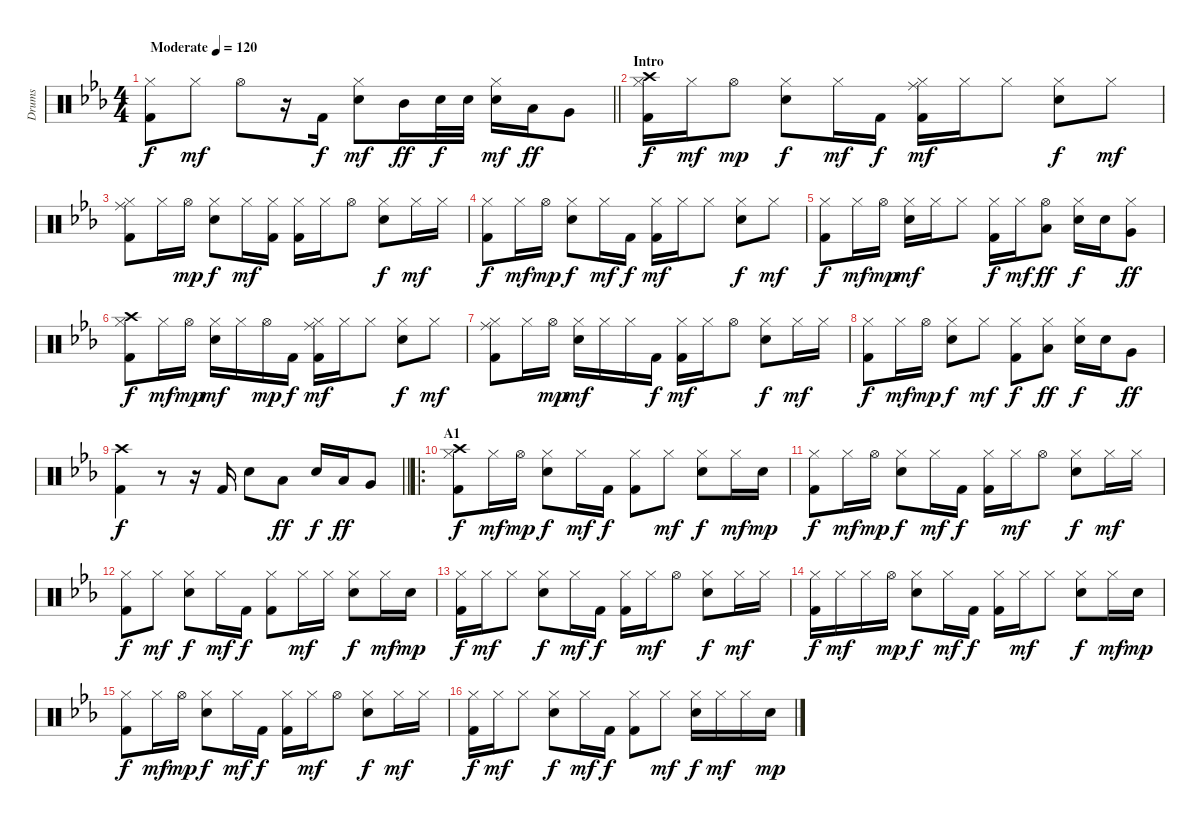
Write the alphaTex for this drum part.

\track ("Drums" "Drums") {instrument percussion}
\staff {score}
\articulation defaults
\ts (4 4)
\tempo (120 "Moderate")
\clef neutral
\barLineRight lightlight
\ks eb
("Hi-Hat (closed)" "Kick (hit) 2").8{dy f} "Hi-Hat (closed)".8{dy mf} "Hi-Hat (open)".8 r.16 "Kick (hit) 2".16{dy f} ("Hi-Hat (closed)" "Snare (hit) 2").8{dy mf} "Mid Tom (hit)".16{dy ff} "Snare (hit) 2".32{dy f} "Snare (hit) 2".32 ("Hi-Hat (closed)" "Snare (hit) 2").16{dy mf} "Low Tom (hit)".16{dy ff} "Very Low Tom (hit)".8 |
\section ("" "Intro")
("Hi-Hat (closed)" "Crash high (hit)" "Kick (hit) 2").16{dy f} "Hi-Hat (closed)".16{dy mf} "Hi-Hat (open)".8{dy mp} ("Hi-Hat (closed)" "Snare (hit) 2").8{dy f} "Hi-Hat (closed)".16{dy mf} "Kick (hit) 2".16{dy f} ("Hi-Hat (closed)" "Kick (hit) 2" "Ride (middle)").16{dy mf} "Hi-Hat (closed)".16 "Hi-Hat (closed)".8 ("Hi-Hat (closed)" "Snare (hit) 2").8{dy f} "Hi-Hat (closed)".8{dy mf} |
("Hi-Hat (closed)" "Kick (hit) 2" "Ride (middle)").8 "Hi-Hat (closed)".16 "Hi-Hat (open)".16{dy mp} ("Hi-Hat (closed)" "Snare (hit) 2").8{dy f} "Hi-Hat (closed)".16{dy mf} ("Hi-Hat (closed)" "Kick (hit) 2").16 ("Hi-Hat (closed)" "Kick (hit) 2").16 "Hi-Hat (closed)".16 "Hi-Hat (open)".8 ("Hi-Hat (closed)" "Snare (hit) 2").8{dy f} "Hi-Hat (closed)".16{dy mf} "Hi-Hat (closed)".16 |
("Hi-Hat (closed)" "Kick (hit) 2").8{dy f} "Hi-Hat (closed)".16{dy mf} "Hi-Hat (open)".16{dy mp} ("Hi-Hat (closed)" "Snare (hit) 2").8{dy f} "Hi-Hat (closed)".16{dy mf} "Kick (hit) 2".16{dy f} ("Hi-Hat (closed)" "Kick (hit) 2").16{dy mf} "Hi-Hat (closed)".16 "Hi-Hat (closed)".8 ("Hi-Hat (closed)" "Snare (hit) 2").8{dy f} "Hi-Hat (closed)".8{dy mf} |
("Hi-Hat (closed)" "Kick (hit) 2").8{dy f} "Hi-Hat (closed)".16{dy mf} "Hi-Hat (open)".16{dy mp} ("Hi-Hat (closed)" "Snare (hit) 2").16{dy mf} "Hi-Hat (closed)".16 "Hi-Hat (closed)".8 ("Hi-Hat (closed)" "Kick (hit) 2").16{dy f} "Hi-Hat (closed)".16{dy mf} ("Hi-Hat (open)" "Low Tom (hit)").8{dy ff} ("Hi-Hat (closed)" "Snare (hit) 2").16{dy f} "Snare (hit) 2".16 ("Hi-Hat (closed)" "Very Low Tom (hit)").8{dy ff} |
("Hi-Hat (closed)" "Crash high (hit)" "Kick (hit) 2").8{dy f} "Hi-Hat (closed)".16{dy mf} "Hi-Hat (open)".16{dy mp} ("Hi-Hat (closed)" "Snare (hit) 2").16{dy mf} "Hi-Hat (closed)".16 "Hi-Hat (open)".16{dy mp} "Kick (hit) 2".16{dy f} ("Hi-Hat (closed)" "Kick (hit) 2" "Ride (middle)").16{dy mf} "Hi-Hat (closed)".16 "Hi-Hat (closed)".8 ("Hi-Hat (closed)" "Snare (hit) 2").8{dy f} "Hi-Hat (closed)".8{dy mf} |
("Hi-Hat (closed)" "Kick (hit) 2" "Ride (middle)").8 "Hi-Hat (closed)".16 "Hi-Hat (open)".16{dy mp} ("Hi-Hat (closed)" "Snare (hit) 2").16{dy mf} "Hi-Hat (closed)".16 "Hi-Hat (closed)".16 "Kick (hit) 2".16{dy f} ("Hi-Hat (closed)" "Kick (hit) 2").16{dy mf} "Hi-Hat (closed)".16 "Hi-Hat (open)".8 ("Hi-Hat (closed)" "Snare (hit) 2").8{dy f} "Hi-Hat (closed)".16{dy mf} "Hi-Hat (closed)".16 |
("Hi-Hat (closed)" "Kick (hit) 2").8{dy f} "Hi-Hat (closed)".16{dy mf} "Hi-Hat (open)".16{dy mp} ("Hi-Hat (closed)" "Snare (hit) 2").8{dy f} "Hi-Hat (closed)".8{dy mf} ("Hi-Hat (closed)" "Kick (hit) 2").8{dy f} ("Hi-Hat (closed)" "Low Tom (hit)").8{dy ff} ("Hi-Hat (closed)" "Snare (hit) 2").16{dy f} "Snare (hit) 2".16 "Very Low Tom (hit)".8{dy ff} |
\barLineRight lightlight
("Crash high (hit)" "Kick (hit) 2").4{dy f} r.8 r.16 "Kick (hit) 2".16 "Snare (hit) 2".8 "Low Tom (hit)".8{dy ff} "Snare (hit) 2".16{dy f} "Low Tom (hit)".16{dy ff} "Very Low Tom (hit)".8 |
\ro
\section ("" "A1")
("Hi-Hat (closed)" "Crash high (hit)" "Kick (hit) 2").8{dy f} "Hi-Hat (closed)".16{dy mf} "Hi-Hat (open)".16{dy mp} ("Hi-Hat (closed)" "Snare (hit) 2").8{dy f} "Hi-Hat (closed)".16{dy mf} "Kick (hit) 2".16{dy f} ("Hi-Hat (closed)" "Kick (hit) 2").8 "Hi-Hat (closed)".8{dy mf} ("Hi-Hat (closed)" "Snare (hit) 2").8{dy f} "Hi-Hat (closed)".16{dy mf} "Snare (hit) 2".16{dy mp} |
("Hi-Hat (closed)" "Kick (hit) 2").8{dy f} "Hi-Hat (closed)".16{dy mf} "Hi-Hat (open)".16{dy mp} ("Hi-Hat (closed)" "Snare (hit) 2").8{dy f} "Hi-Hat (closed)".16{dy mf} "Kick (hit) 2".16{dy f} ("Hi-Hat (closed)" "Kick (hit) 2").16 "Hi-Hat (closed)".16{dy mf} "Hi-Hat (open)".8 ("Hi-Hat (closed)" "Snare (hit) 2").8{dy f} "Hi-Hat (closed)".16{dy mf} "Hi-Hat (closed)".16 |
("Hi-Hat (closed)" "Kick (hit) 2").8{dy f} "Hi-Hat (closed)".8{dy mf} ("Hi-Hat (closed)" "Snare (hit) 2").8{dy f} "Hi-Hat (closed)".16{dy mf} "Kick (hit) 2".16{dy f} ("Hi-Hat (closed)" "Kick (hit) 2").8 "Hi-Hat (closed)".16{dy mf} "Hi-Hat (closed)".16 ("Hi-Hat (closed)" "Snare (hit) 2").8{dy f} "Hi-Hat (closed)".16{dy mf} "Snare (hit) 2".16{dy mp} |
("Hi-Hat (closed)" "Kick (hit) 2").16{dy f} "Hi-Hat (closed)".16{dy mf} "Hi-Hat (closed)".8 ("Hi-Hat (closed)" "Snare (hit) 2").8{dy f} "Hi-Hat (closed)".16{dy mf} "Kick (hit) 2".16{dy f} ("Hi-Hat (closed)" "Kick (hit) 2").16 "Hi-Hat (closed)".16{dy mf} "Hi-Hat (open)".8 ("Hi-Hat (closed)" "Snare (hit) 2").8{dy f} "Hi-Hat (closed)".16{dy mf} "Hi-Hat (closed)".16 |
("Hi-Hat (closed)" "Kick (hit) 2").16{dy f} "Hi-Hat (closed)".16{dy mf} "Hi-Hat (closed)".16 "Hi-Hat (open)".16{dy mp} ("Hi-Hat (closed)" "Snare (hit) 2").8{dy f} "Hi-Hat (closed)".16{dy mf} "Kick (hit) 2".16{dy f} ("Hi-Hat (closed)" "Kick (hit) 2").16 "Hi-Hat (closed)".16{dy mf} "Hi-Hat (closed)".8 ("Hi-Hat (closed)" "Snare (hit) 2").8{dy f} "Hi-Hat (closed)".16{dy mf} "Snare (hit) 2".16{dy mp} |
("Hi-Hat (closed)" "Kick (hit) 2").8{dy f} "Hi-Hat (closed)".16{dy mf} "Hi-Hat (open)".16{dy mp} ("Hi-Hat (closed)" "Snare (hit) 2").8{dy f} "Hi-Hat (closed)".16{dy mf} "Kick (hit) 2".16{dy f} ("Hi-Hat (closed)" "Kick (hit) 2").16 "Hi-Hat (closed)".16{dy mf} "Hi-Hat (open)".8 ("Hi-Hat (closed)" "Snare (hit) 2").8{dy f} "Hi-Hat (closed)".16{dy mf} "Hi-Hat (closed)".16 |
("Hi-Hat (closed)" "Kick (hit) 2").16{dy f} "Hi-Hat (closed)".16{dy mf} "Hi-Hat (closed)".8 ("Hi-Hat (closed)" "Snare (hit) 2").8{dy f} "Hi-Hat (closed)".16{dy mf} "Kick (hit) 2".16{dy f} ("Hi-Hat (closed)" "Kick (hit) 2").8 "Hi-Hat (closed)".8{dy mf} ("Hi-Hat (closed)" "Snare (hit) 2").16{dy f} "Hi-Hat (closed)".16{dy mf} "Hi-Hat (closed)".16 "Snare (hit) 2".16{dy mp}
